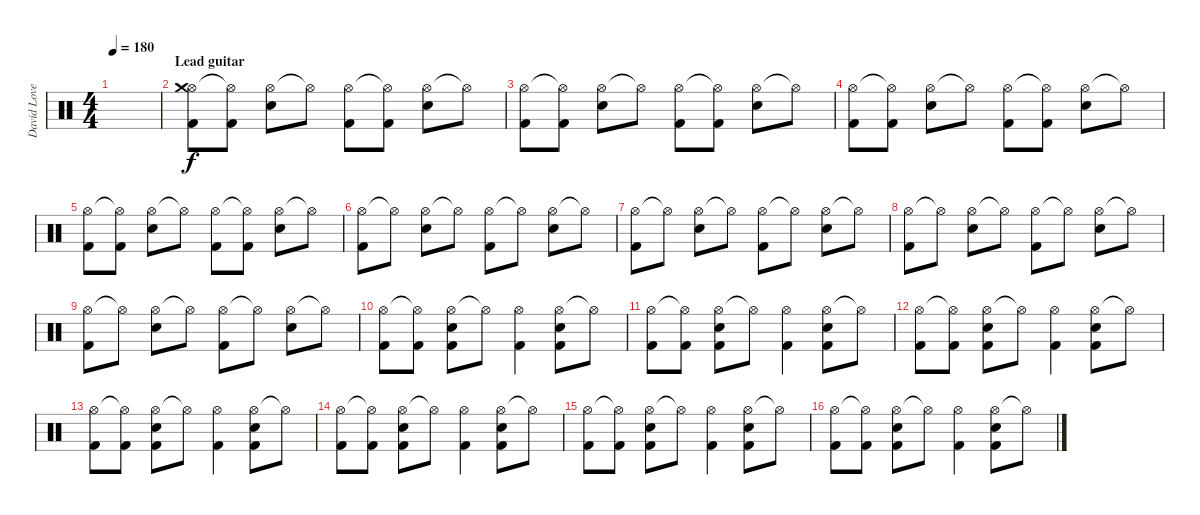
\track ("David Lovering" "David Love") {instrument percussion}
\staff {score}
\articulation defaults
\ts (4 4)
\tempo 180
\clef neutral
\ks c
|
\section ("" "Lead guitar")
("Hi-Hat (open)" "Crash medium (hit)" "Kick (hit) 2").8 ("Hi-Hat (open)"{t} "Kick (hit) 2").8 ("Hi-Hat (open)" "Snare (hit) 2").8 "Hi-Hat (open)"{t}.8 ("Hi-Hat (open)" "Kick (hit) 2").8 ("Hi-Hat (open)"{t} "Kick (hit) 2").8 ("Hi-Hat (open)" "Snare (hit) 2").8 "Hi-Hat (open)"{t}.8 |
("Hi-Hat (open)" "Kick (hit) 2").8 ("Hi-Hat (open)"{t} "Kick (hit) 2").8 ("Hi-Hat (open)" "Snare (hit) 2").8 "Hi-Hat (open)"{t}.8 ("Hi-Hat (open)" "Kick (hit) 2").8 ("Hi-Hat (open)"{t} "Kick (hit) 2").8 ("Hi-Hat (open)" "Snare (hit) 2").8 "Hi-Hat (open)"{t}.8 |
("Hi-Hat (open)" "Kick (hit) 2").8 ("Hi-Hat (open)"{t} "Kick (hit) 2").8 ("Hi-Hat (open)" "Snare (hit) 2").8 "Hi-Hat (open)"{t}.8 ("Hi-Hat (open)" "Kick (hit) 2").8 ("Hi-Hat (open)"{t} "Kick (hit) 2").8 ("Hi-Hat (open)" "Snare (hit) 2").8 "Hi-Hat (open)"{t}.8 |
("Hi-Hat (open)" "Kick (hit) 2").8 ("Hi-Hat (open)"{t} "Kick (hit) 2").8 ("Hi-Hat (open)" "Snare (hit) 2").8 "Hi-Hat (open)"{t}.8 ("Hi-Hat (open)" "Kick (hit) 2").8 ("Hi-Hat (open)"{t} "Kick (hit) 2").8 ("Hi-Hat (open)" "Snare (hit) 2").8 "Hi-Hat (open)"{t}.8 |
("Hi-Hat (open)" "Kick (hit) 2").8 "Hi-Hat (open)"{t}.8 ("Hi-Hat (open)" "Snare (hit) 2").8 "Hi-Hat (open)"{t}.8 ("Hi-Hat (open)" "Kick (hit) 2").8 "Hi-Hat (open)"{t}.8 ("Hi-Hat (open)" "Snare (hit) 2").8 "Hi-Hat (open)"{t}.8 |
("Hi-Hat (open)" "Kick (hit) 2").8 "Hi-Hat (open)"{t}.8 ("Hi-Hat (open)" "Snare (hit) 2").8 "Hi-Hat (open)"{t}.8 ("Hi-Hat (open)" "Kick (hit) 2").8 "Hi-Hat (open)"{t}.8 ("Hi-Hat (open)" "Snare (hit) 2").8 "Hi-Hat (open)"{t}.8 |
("Hi-Hat (open)" "Kick (hit) 2").8 "Hi-Hat (open)"{t}.8 ("Hi-Hat (open)" "Snare (hit) 2").8 "Hi-Hat (open)"{t}.8 ("Hi-Hat (open)" "Kick (hit) 2").8 "Hi-Hat (open)"{t}.8 ("Hi-Hat (open)" "Snare (hit) 2").8 "Hi-Hat (open)"{t}.8 |
("Hi-Hat (open)" "Kick (hit) 2").8 "Hi-Hat (open)"{t}.8 ("Hi-Hat (open)" "Snare (hit) 2").8 "Hi-Hat (open)"{t}.8 ("Hi-Hat (open)" "Kick (hit) 2").8 "Hi-Hat (open)"{t}.8 ("Hi-Hat (open)" "Snare (hit) 2").8 "Hi-Hat (open)"{t}.8 |
("Hi-Hat (open)" "Kick (hit) 2").8 ("Hi-Hat (open)"{t} "Kick (hit) 2").8 ("Hi-Hat (open)" "Snare (hit) 2" "Kick (hit) 2").8 "Hi-Hat (open)"{t}.8 ("Hi-Hat (open)" "Kick (hit) 2").4 ("Hi-Hat (open)" "Snare (hit) 2" "Kick (hit) 2").8 "Hi-Hat (open)"{t}.8 |
("Hi-Hat (open)" "Kick (hit) 2").8 ("Hi-Hat (open)"{t} "Kick (hit) 2").8 ("Hi-Hat (open)" "Snare (hit) 2" "Kick (hit) 2").8 "Hi-Hat (open)"{t}.8 ("Hi-Hat (open)" "Kick (hit) 2").4 ("Hi-Hat (open)" "Snare (hit) 2" "Kick (hit) 2").8 "Hi-Hat (open)"{t}.8 |
("Hi-Hat (open)" "Kick (hit) 2").8 ("Hi-Hat (open)"{t} "Kick (hit) 2").8 ("Hi-Hat (open)" "Snare (hit) 2" "Kick (hit) 2").8 "Hi-Hat (open)"{t}.8 ("Hi-Hat (open)" "Kick (hit) 2").4 ("Hi-Hat (open)" "Snare (hit) 2" "Kick (hit) 2").8 "Hi-Hat (open)"{t}.8 |
("Hi-Hat (open)" "Kick (hit) 2").8 ("Hi-Hat (open)"{t} "Kick (hit) 2").8 ("Hi-Hat (open)" "Snare (hit) 2" "Kick (hit) 2").8 "Hi-Hat (open)"{t}.8 ("Hi-Hat (open)" "Kick (hit) 2").4 ("Hi-Hat (open)" "Snare (hit) 2" "Kick (hit) 2").8 "Hi-Hat (open)"{t}.8 |
("Hi-Hat (open)" "Kick (hit) 2").8 ("Hi-Hat (open)"{t} "Kick (hit) 2").8 ("Hi-Hat (open)" "Snare (hit) 2" "Kick (hit) 2").8 "Hi-Hat (open)"{t}.8 ("Hi-Hat (open)" "Kick (hit) 2").4 ("Hi-Hat (open)" "Snare (hit) 2" "Kick (hit) 2").8 "Hi-Hat (open)"{t}.8 |
("Hi-Hat (open)" "Kick (hit) 2").8 ("Hi-Hat (open)"{t} "Kick (hit) 2").8 ("Hi-Hat (open)" "Snare (hit) 2" "Kick (hit) 2").8 "Hi-Hat (open)"{t}.8 ("Hi-Hat (open)" "Kick (hit) 2").4 ("Hi-Hat (open)" "Snare (hit) 2" "Kick (hit) 2").8 "Hi-Hat (open)"{t}.8 |
("Hi-Hat (open)" "Kick (hit) 2").8 ("Hi-Hat (open)"{t} "Kick (hit) 2").8 ("Hi-Hat (open)" "Snare (hit) 2" "Kick (hit) 2").8 "Hi-Hat (open)"{t}.8 ("Hi-Hat (open)" "Kick (hit) 2").4 ("Hi-Hat (open)" "Snare (hit) 2" "Kick (hit) 2").8 "Hi-Hat (open)"{t}.8
